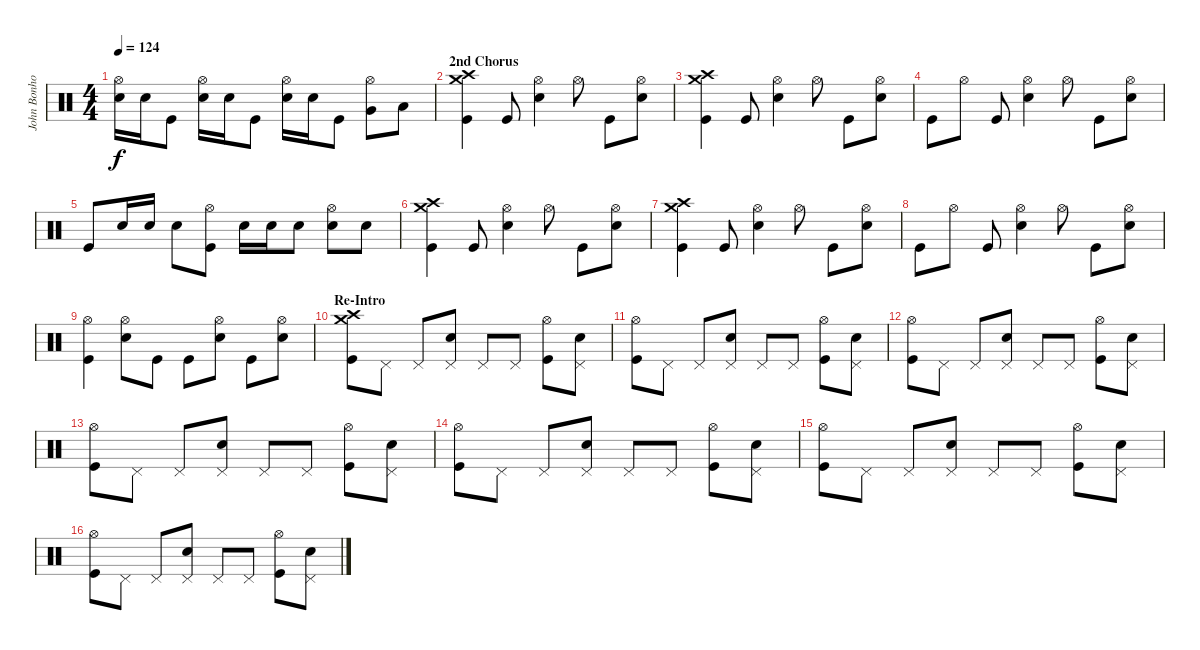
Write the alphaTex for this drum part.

\track ("John Bonhom" "John Bonho") {instrument percussion}
\staff {score}
\articulation defaults
\ts (4 4)
\tempo 124
\clef neutral
\ks c
("Hi-Hat (open)" "Electric Snare (hit)").16{dy f} "Electric Snare (hit)".16 "Kick (hit)".8 ("Hi-Hat (open)" "Electric Snare (hit)").16 "Electric Snare (hit)".16 "Kick (hit)".8 ("Hi-Hat (open)" "Electric Snare (hit)").16 "Electric Snare (hit)".16 "Kick (hit)".8 ("Hi-Hat (open)" "Very Low Tom (hit)").8 "Low Floor Tom (hit)".8 |
\section ("" "2nd Chorus")
("Crash high (hit)" "Crash medium (hit)" "Kick (hit)").4 "Kick (hit)".8 ("Hi-Hat (open)" "Electric Snare (hit)").4 "Hi-Hat (open)".8 "Kick (hit)".8 ("Hi-Hat (open)" "Electric Snare (hit)").8 |
("Crash high (hit)" "Crash medium (hit)" "Kick (hit)").4 "Kick (hit)".8 ("Hi-Hat (open)" "Electric Snare (hit)").4 "Hi-Hat (open)".8 "Kick (hit)".8 ("Hi-Hat (open)" "Electric Snare (hit)").8 |
"Kick (hit)".8 "Hi-Hat (open)".8 "Kick (hit)".8 ("Hi-Hat (open)" "Electric Snare (hit)").4 "Hi-Hat (open)".8 "Kick (hit)".8 ("Hi-Hat (open)" "Electric Snare (hit)").8 |
"Kick (hit)".8 "Electric Snare (hit)".16 "Electric Snare (hit)".16 "Electric Snare (hit)".8 ("Hi-Hat (open)" "Kick (hit)").8 "Electric Snare (hit)".16 "Electric Snare (hit)".16 "Electric Snare (hit)".8 ("Hi-Hat (open)" "Electric Snare (hit)").8 "Electric Snare (hit)".8 |
("Crash high (hit)" "Crash medium (hit)" "Kick (hit)").4 "Kick (hit)".8 ("Hi-Hat (open)" "Electric Snare (hit)").4 "Hi-Hat (open)".8 "Kick (hit)".8 ("Hi-Hat (open)" "Electric Snare (hit)").8 |
("Crash high (hit)" "Crash medium (hit)" "Kick (hit)").4 "Kick (hit)".8 ("Hi-Hat (open)" "Electric Snare (hit)").4 "Hi-Hat (open)".8 "Kick (hit)".8 ("Hi-Hat (open)" "Electric Snare (hit)").8 |
"Kick (hit)".8 "Hi-Hat (open)".8 "Kick (hit)".8 ("Hi-Hat (open)" "Electric Snare (hit)").4 "Hi-Hat (open)".8 "Kick (hit)".8 ("Hi-Hat (open)" "Electric Snare (hit)").8 |
("Hi-Hat (open)" "Kick (hit)").4 ("Hi-Hat (open)" "Electric Snare (hit)").8 "Kick (hit)".8 "Kick (hit)".8 ("Hi-Hat (open)" "Electric Snare (hit)").8 "Kick (hit)".8 ("Hi-Hat (open)" "Electric Snare (hit)").8 |
\section ("" "Re-Intro")
("Crash medium (hit)" "Crash high (hit)" "Kick (hit)").8 "Pedal Hi-Hat (hit)".8 "Pedal Hi-Hat (hit)".8 ("Pedal Hi-Hat (hit)" "Electric Snare (hit)").8 "Pedal Hi-Hat (hit)".8 "Pedal Hi-Hat (hit)".8 ("Hi-Hat (open)" "Kick (hit)").8 ("Pedal Hi-Hat (hit)" "Electric Snare (hit)").8 |
("Hi-Hat (open)" "Kick (hit)").8 "Pedal Hi-Hat (hit)".8 "Pedal Hi-Hat (hit)".8 ("Pedal Hi-Hat (hit)" "Electric Snare (hit)").8 "Pedal Hi-Hat (hit)".8 "Pedal Hi-Hat (hit)".8 ("Hi-Hat (open)" "Kick (hit)").8 ("Pedal Hi-Hat (hit)" "Electric Snare (hit)").8 |
("Hi-Hat (open)" "Kick (hit)").8 "Pedal Hi-Hat (hit)".8 "Pedal Hi-Hat (hit)".8 ("Pedal Hi-Hat (hit)" "Electric Snare (hit)").8 "Pedal Hi-Hat (hit)".8 "Pedal Hi-Hat (hit)".8 ("Hi-Hat (open)" "Kick (hit)").8 ("Pedal Hi-Hat (hit)" "Electric Snare (hit)").8 |
("Hi-Hat (open)" "Kick (hit)").8 "Pedal Hi-Hat (hit)".8 "Pedal Hi-Hat (hit)".8 ("Pedal Hi-Hat (hit)" "Electric Snare (hit)").8 "Pedal Hi-Hat (hit)".8 "Pedal Hi-Hat (hit)".8 ("Hi-Hat (open)" "Kick (hit)").8 ("Pedal Hi-Hat (hit)" "Electric Snare (hit)").8 |
("Hi-Hat (open)" "Kick (hit)").8 "Pedal Hi-Hat (hit)".8 "Pedal Hi-Hat (hit)".8 ("Pedal Hi-Hat (hit)" "Electric Snare (hit)").8 "Pedal Hi-Hat (hit)".8 "Pedal Hi-Hat (hit)".8 ("Hi-Hat (open)" "Kick (hit)").8 ("Pedal Hi-Hat (hit)" "Electric Snare (hit)").8 |
("Hi-Hat (open)" "Kick (hit)").8 "Pedal Hi-Hat (hit)".8 "Pedal Hi-Hat (hit)".8 ("Pedal Hi-Hat (hit)" "Electric Snare (hit)").8 "Pedal Hi-Hat (hit)".8 "Pedal Hi-Hat (hit)".8 ("Hi-Hat (open)" "Kick (hit)").8 ("Pedal Hi-Hat (hit)" "Electric Snare (hit)").8 |
("Hi-Hat (open)" "Kick (hit)").8 "Pedal Hi-Hat (hit)".8 "Pedal Hi-Hat (hit)".8 ("Pedal Hi-Hat (hit)" "Electric Snare (hit)").8 "Pedal Hi-Hat (hit)".8 "Pedal Hi-Hat (hit)".8 ("Hi-Hat (open)" "Kick (hit)").8 ("Pedal Hi-Hat (hit)" "Electric Snare (hit)").8
